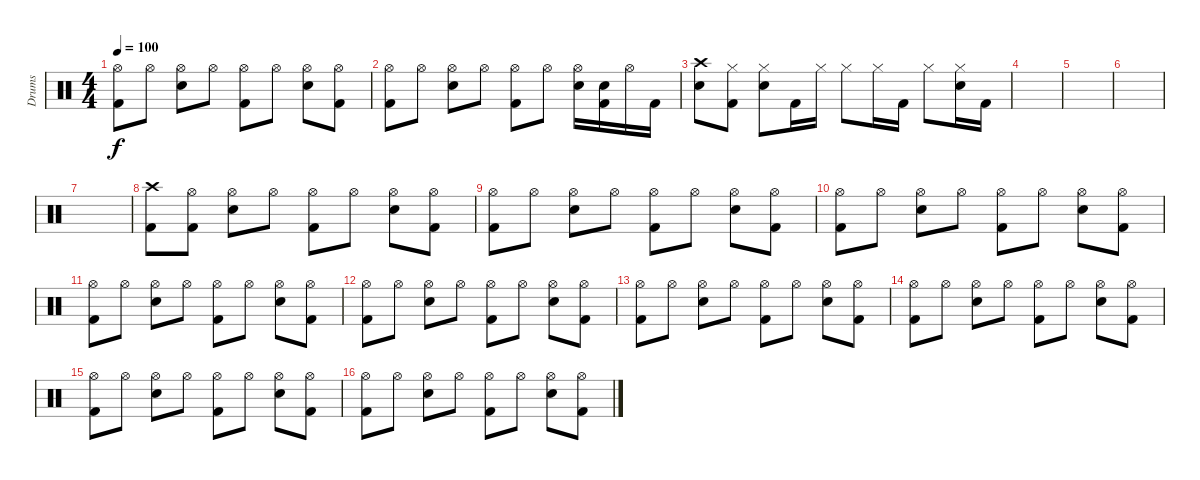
\track ("Drums" "Drums") {instrument percussion}
\staff {score}
\articulation defaults
\ts (4 4)
\tempo 100
\clef neutral
\ks c
("Hi-Hat (open)" "Kick (hit) 2").8{dy f} "Hi-Hat (open)".8 ("Hi-Hat (open)" "Snare (hit) 2").8 "Hi-Hat (open)".8 ("Hi-Hat (open)" "Kick (hit) 2").8 "Hi-Hat (open)".8 ("Hi-Hat (open)" "Snare (hit) 2").8 ("Hi-Hat (open)" "Kick (hit) 2").8 |
("Hi-Hat (open)" "Kick (hit) 2").8 "Hi-Hat (open)".8 ("Hi-Hat (open)" "Snare (hit) 2").8 "Hi-Hat (open)".8 ("Hi-Hat (open)" "Kick (hit) 2").8 "Hi-Hat (open)".8 ("Hi-Hat (open)" "Snare (hit) 2").16 ("Snare (hit) 2" "Kick (hit) 2").16 "Hi-Hat (open)".16 "Kick (hit) 2".16 |
("Crash high (hit)" "Snare (hit) 2").8 ("Hi-Hat (closed)" "Kick (hit) 2").8 ("Hi-Hat (closed)" "Snare (hit) 2").8 "Kick (hit) 2".16 "Hi-Hat (closed)".16 "Hi-Hat (closed)".8 "Hi-Hat (closed)".16 "Kick (hit) 2".16 "Hi-Hat (closed)".8 ("Hi-Hat (closed)" "Snare (hit) 2").16 "Kick (hit) 2".16 |
|
|
|
|
("Crash high (hit)" "Kick (hit) 2").8 ("Hi-Hat (open)" "Kick (hit) 2").8 ("Hi-Hat (open)" "Snare (hit) 2").8 "Hi-Hat (open)".8 ("Hi-Hat (open)" "Kick (hit) 2").8 "Hi-Hat (open)".8 ("Hi-Hat (open)" "Snare (hit) 2").8 ("Hi-Hat (open)" "Kick (hit) 2").8 |
("Hi-Hat (open)" "Kick (hit) 2").8 "Hi-Hat (open)".8 ("Hi-Hat (open)" "Snare (hit) 2").8 "Hi-Hat (open)".8 ("Hi-Hat (open)" "Kick (hit) 2").8 "Hi-Hat (open)".8 ("Hi-Hat (open)" "Snare (hit) 2").8 ("Hi-Hat (open)" "Kick (hit) 2").8 |
("Hi-Hat (open)" "Kick (hit) 2").8 "Hi-Hat (open)".8 ("Hi-Hat (open)" "Snare (hit) 2").8 "Hi-Hat (open)".8 ("Hi-Hat (open)" "Kick (hit) 2").8 "Hi-Hat (open)".8 ("Hi-Hat (open)" "Snare (hit) 2").8 ("Hi-Hat (open)" "Kick (hit) 2").8 |
("Hi-Hat (open)" "Kick (hit) 2").8 "Hi-Hat (open)".8 ("Hi-Hat (open)" "Snare (hit) 2").8 "Hi-Hat (open)".8 ("Hi-Hat (open)" "Kick (hit) 2").8 "Hi-Hat (open)".8 ("Hi-Hat (open)" "Snare (hit) 2").8 ("Hi-Hat (open)" "Kick (hit) 2").8 |
("Hi-Hat (open)" "Kick (hit) 2").8 "Hi-Hat (open)".8 ("Hi-Hat (open)" "Snare (hit) 2").8 "Hi-Hat (open)".8 ("Hi-Hat (open)" "Kick (hit) 2").8 "Hi-Hat (open)".8 ("Hi-Hat (open)" "Snare (hit) 2").8 ("Hi-Hat (open)" "Kick (hit) 2").8 |
("Hi-Hat (open)" "Kick (hit) 2").8 "Hi-Hat (open)".8 ("Hi-Hat (open)" "Snare (hit) 2").8 "Hi-Hat (open)".8 ("Hi-Hat (open)" "Kick (hit) 2").8 "Hi-Hat (open)".8 ("Hi-Hat (open)" "Snare (hit) 2").8 ("Hi-Hat (open)" "Kick (hit) 2").8 |
("Hi-Hat (open)" "Kick (hit) 2").8 "Hi-Hat (open)".8 ("Hi-Hat (open)" "Snare (hit) 2").8 "Hi-Hat (open)".8 ("Hi-Hat (open)" "Kick (hit) 2").8 "Hi-Hat (open)".8 ("Hi-Hat (open)" "Snare (hit) 2").8 ("Hi-Hat (open)" "Kick (hit) 2").8 |
("Hi-Hat (open)" "Kick (hit) 2").8 "Hi-Hat (open)".8 ("Hi-Hat (open)" "Snare (hit) 2").8 "Hi-Hat (open)".8 ("Hi-Hat (open)" "Kick (hit) 2").8 "Hi-Hat (open)".8 ("Hi-Hat (open)" "Snare (hit) 2").8 ("Hi-Hat (open)" "Kick (hit) 2").8 |
("Hi-Hat (open)" "Kick (hit) 2").8 "Hi-Hat (open)".8 ("Hi-Hat (open)" "Snare (hit) 2").8 "Hi-Hat (open)".8 ("Hi-Hat (open)" "Kick (hit) 2").8 "Hi-Hat (open)".8 ("Hi-Hat (open)" "Snare (hit) 2").8 ("Hi-Hat (open)" "Kick (hit) 2").8
